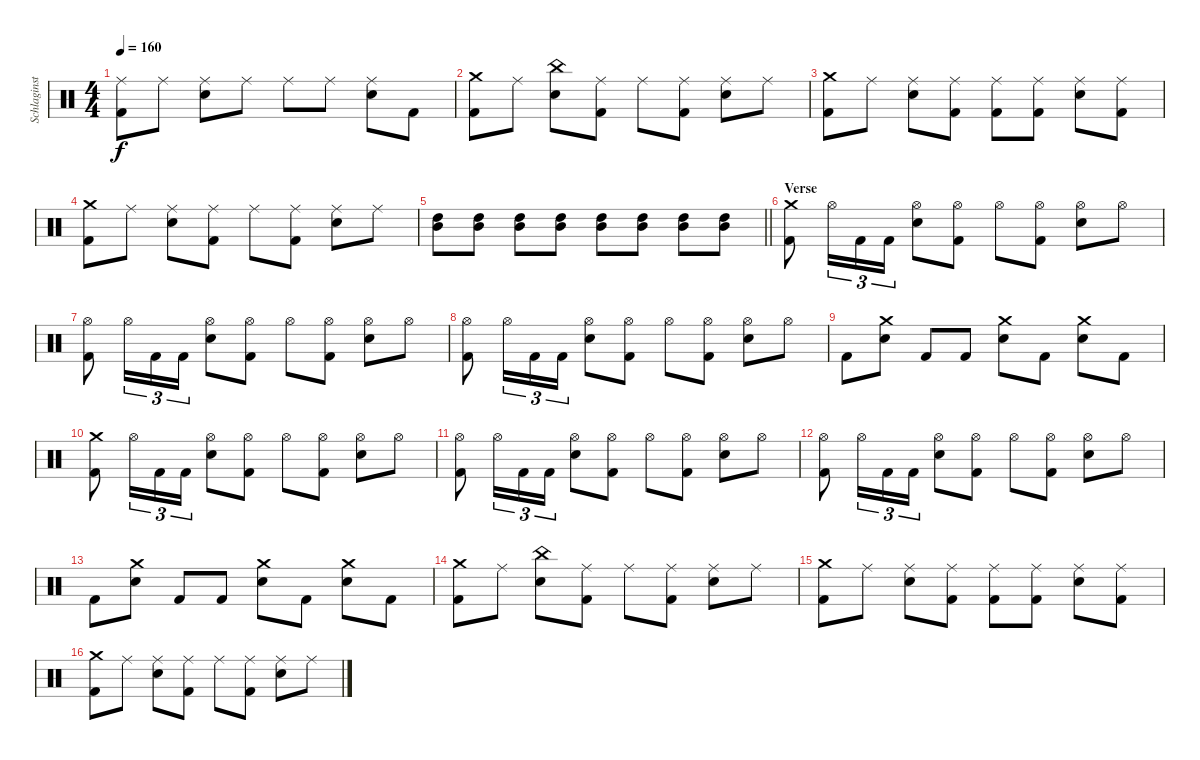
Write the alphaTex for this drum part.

\track ("Schlaginstrumente - Auswahl" "Schlaginst") {instrument percussion}
\staff {score}
\articulation defaults
\ts (4 4)
\tempo 160
\clef neutral
\ks c
("Ride (middle)" "Kick (hit) 2").8{dy f} "Ride (middle)".8 ("Ride (middle)" "Electric Snare (hit)").8 "Ride (middle)".8 "Ride (middle)".8 "Ride (middle)".8 ("Ride (middle)" "Electric Snare (hit)").8 "Kick (hit) 2".8 |
("Crash medium (hit)" "Kick (hit) 2").8 "Ride (middle)".8 ("China (hit)" "Electric Snare (hit)").8 ("Ride (middle)" "Kick (hit) 2").8 "Ride (middle)".8 ("Ride (middle)" "Kick (hit) 2").8 ("Ride (middle)" "Electric Snare (hit)").8 "Ride (middle)".8 |
("Crash medium (hit)" "Kick (hit) 2").8 "Ride (middle)".8 ("Ride (middle)" "Electric Snare (hit)").8 ("Ride (middle)" "Kick (hit) 2").8 ("Ride (middle)" "Kick (hit) 2").8 ("Ride (middle)" "Kick (hit) 2").8 ("Ride (middle)" "Electric Snare (hit)").8 ("Ride (middle)" "Kick (hit) 2").8 |
("Crash medium (hit)" "Kick (hit) 2").8 "Ride (middle)".8 ("Ride (middle)" "Electric Snare (hit)").8 ("Ride (middle)" "Kick (hit) 2").8 "Ride (middle)".8 ("Ride (middle)" "Kick (hit) 2").8 ("Ride (middle)" "Electric Snare (hit)").8 "Ride (middle)".8 |
\barLineRight lightlight
("High Tom (hit)" "Mid Tom (hit)").8 ("High Tom (hit)" "Mid Tom (hit)").8 ("High Tom (hit)" "Mid Tom (hit)").8 ("High Tom (hit)" "Mid Tom (hit)").8 ("High Tom (hit)" "Mid Tom (hit)").8 ("High Tom (hit)" "Mid Tom (hit)").8 ("High Tom (hit)" "Mid Tom (hit)").8 ("High Tom (hit)" "Mid Tom (hit)").8 |
\section ("" "Verse")
("Crash medium (hit)" "Kick (hit) 2").8 "Hi-Hat (open)".16{tu (3 2)} "Kick (hit) 2".16{tu (3 2)} "Kick (hit) 2".16{tu (3 2)} ("Hi-Hat (open)" "Electric Snare (hit)").8 ("Hi-Hat (open)" "Kick (hit) 2").8 "Hi-Hat (open)".8 ("Hi-Hat (open)" "Kick (hit) 2").8 ("Hi-Hat (open)" "Electric Snare (hit)").8 "Hi-Hat (open)".8 |
("Hi-Hat (open)" "Kick (hit) 2").8 "Hi-Hat (open)".16{tu (3 2)} "Kick (hit) 2".16{tu (3 2)} "Kick (hit) 2".16{tu (3 2)} ("Hi-Hat (open)" "Electric Snare (hit)").8 ("Hi-Hat (open)" "Kick (hit) 2").8 "Hi-Hat (open)".8 ("Hi-Hat (open)" "Kick (hit) 2").8 ("Hi-Hat (open)" "Electric Snare (hit)").8 "Hi-Hat (open)".8 |
("Hi-Hat (open)" "Kick (hit) 2").8 "Hi-Hat (open)".16{tu (3 2)} "Kick (hit) 2".16{tu (3 2)} "Kick (hit) 2".16{tu (3 2)} ("Hi-Hat (open)" "Electric Snare (hit)").8 ("Hi-Hat (open)" "Kick (hit) 2").8 "Hi-Hat (open)".8 ("Hi-Hat (open)" "Kick (hit) 2").8 ("Hi-Hat (open)" "Electric Snare (hit)").8 "Hi-Hat (open)".8 |
"Kick (hit) 2".8 ("Crash medium (hit)" "Electric Snare (hit)").8 "Kick (hit) 2".8 "Kick (hit) 2".8 ("Crash medium (hit)" "Electric Snare (hit)").8 "Kick (hit) 2".8 ("Crash medium (hit)" "Electric Snare (hit)").8 "Kick (hit) 2".8 |
("Crash medium (hit)" "Kick (hit) 2").8 "Hi-Hat (open)".16{tu (3 2)} "Kick (hit) 2".16{tu (3 2)} "Kick (hit) 2".16{tu (3 2)} ("Hi-Hat (open)" "Electric Snare (hit)").8 ("Hi-Hat (open)" "Kick (hit) 2").8 "Hi-Hat (open)".8 ("Hi-Hat (open)" "Kick (hit) 2").8 ("Hi-Hat (open)" "Electric Snare (hit)").8 "Hi-Hat (open)".8 |
("Hi-Hat (open)" "Kick (hit) 2").8 "Hi-Hat (open)".16{tu (3 2)} "Kick (hit) 2".16{tu (3 2)} "Kick (hit) 2".16{tu (3 2)} ("Hi-Hat (open)" "Electric Snare (hit)").8 ("Hi-Hat (open)" "Kick (hit) 2").8 "Hi-Hat (open)".8 ("Hi-Hat (open)" "Kick (hit) 2").8 ("Hi-Hat (open)" "Electric Snare (hit)").8 "Hi-Hat (open)".8 |
("Hi-Hat (open)" "Kick (hit) 2").8 "Hi-Hat (open)".16{tu (3 2)} "Kick (hit) 2".16{tu (3 2)} "Kick (hit) 2".16{tu (3 2)} ("Hi-Hat (open)" "Electric Snare (hit)").8 ("Hi-Hat (open)" "Kick (hit) 2").8 "Hi-Hat (open)".8 ("Hi-Hat (open)" "Kick (hit) 2").8 ("Hi-Hat (open)" "Electric Snare (hit)").8 "Hi-Hat (open)".8 |
"Kick (hit) 2".8 ("Crash medium (hit)" "Electric Snare (hit)").8 "Kick (hit) 2".8 "Kick (hit) 2".8 ("Crash medium (hit)" "Electric Snare (hit)").8 "Kick (hit) 2".8 ("Crash medium (hit)" "Electric Snare (hit)").8 "Kick (hit) 2".8 |
("Crash medium (hit)" "Kick (hit) 2").8 "Ride (middle)".8 ("China (hit)" "Electric Snare (hit)").8 ("Ride (middle)" "Kick (hit) 2").8 "Ride (middle)".8 ("Ride (middle)" "Kick (hit) 2").8 ("Ride (middle)" "Electric Snare (hit)").8 "Ride (middle)".8 |
("Crash medium (hit)" "Kick (hit) 2").8 "Ride (middle)".8 ("Ride (middle)" "Electric Snare (hit)").8 ("Ride (middle)" "Kick (hit) 2").8 ("Ride (middle)" "Kick (hit) 2").8 ("Ride (middle)" "Kick (hit) 2").8 ("Ride (middle)" "Electric Snare (hit)").8 ("Ride (middle)" "Kick (hit) 2").8 |
("Crash medium (hit)" "Kick (hit) 2").8 "Ride (middle)".8 ("Ride (middle)" "Electric Snare (hit)").8 ("Ride (middle)" "Kick (hit) 2").8 "Ride (middle)".8 ("Ride (middle)" "Kick (hit) 2").8 ("Ride (middle)" "Electric Snare (hit)").8 "Ride (middle)".8
